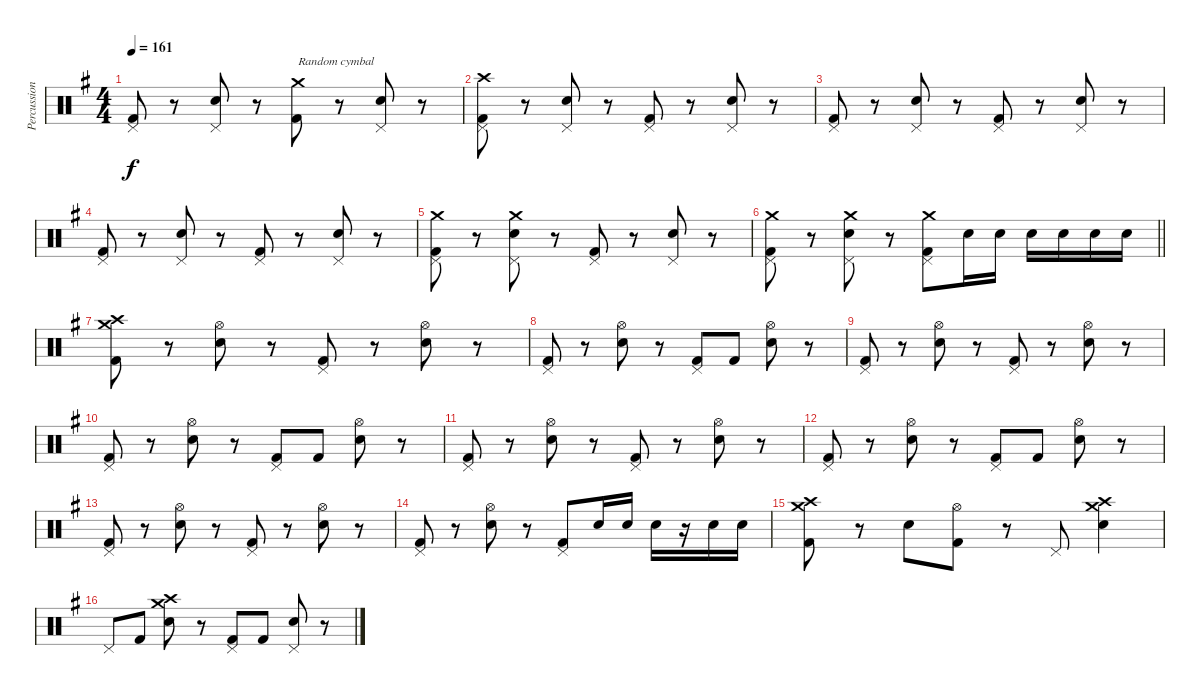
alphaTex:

\track ("Percussion" "Percussion") {instrument percussion}
\staff {score}
\articulation defaults
\ts (4 4)
\tempo 161
\clef neutral
\ks g
("Pedal Hi-Hat (hit)" "Kick (hit) 2").8{dy f} r.8 ("Pedal Hi-Hat (hit)" "Electric Snare (hit)").8 r.8 ("Crash medium (hit)" "Kick (hit) 2").8{txt "Random cymbal"} r.8 ("Pedal Hi-Hat (hit)" "Electric Snare (hit)").8 r.8 |
("Crash high (hit)" "Pedal Hi-Hat (hit)" "Kick (hit) 2").8 r.8 ("Pedal Hi-Hat (hit)" "Electric Snare (hit)").8 r.8 ("Pedal Hi-Hat (hit)" "Kick (hit) 2").8 r.8 ("Pedal Hi-Hat (hit)" "Electric Snare (hit)").8 r.8 |
("Pedal Hi-Hat (hit)" "Kick (hit) 2").8 r.8 ("Pedal Hi-Hat (hit)" "Electric Snare (hit)").8 r.8 ("Pedal Hi-Hat (hit)" "Kick (hit) 2").8 r.8 ("Pedal Hi-Hat (hit)" "Electric Snare (hit)").8 r.8 |
("Pedal Hi-Hat (hit)" "Kick (hit) 2").8 r.8 ("Pedal Hi-Hat (hit)" "Electric Snare (hit)").8 r.8 ("Pedal Hi-Hat (hit)" "Kick (hit) 2").8 r.8 ("Pedal Hi-Hat (hit)" "Electric Snare (hit)").8 r.8 |
("Crash medium (hit)" "Pedal Hi-Hat (hit)" "Kick (hit) 2").8 r.8 ("Crash medium (hit)" "Pedal Hi-Hat (hit)" "Electric Snare (hit)").8 r.8 ("Pedal Hi-Hat (hit)" "Kick (hit) 2").8 r.8 ("Pedal Hi-Hat (hit)" "Electric Snare (hit)").8 r.8 |
\barLineRight lightlight
("Crash medium (hit)" "Pedal Hi-Hat (hit)" "Kick (hit) 2").8 r.8 ("Crash medium (hit)" "Pedal Hi-Hat (hit)" "Electric Snare (hit)").8 r.8 ("Crash medium (hit)" "Pedal Hi-Hat (hit)" "Kick (hit) 2").8 "Electric Snare (hit)".16 "Electric Snare (hit)".16 "Electric Snare (hit)".16 "Electric Snare (hit)".16 "Electric Snare (hit)".16 "Electric Snare (hit)".16 |
("Crash high (hit)" "Crash medium (hit)" "Kick (hit) 2").8 r.8 ("Hi-Hat (open)" "Electric Snare (hit)").8 r.8 ("Pedal Hi-Hat (hit)" "Kick (hit) 2").8 r.8 ("Hi-Hat (open)" "Electric Snare (hit)").8 r.8 |
("Pedal Hi-Hat (hit)" "Kick (hit) 2").8 r.8 ("Hi-Hat (open)" "Electric Snare (hit)").8 r.8 ("Pedal Hi-Hat (hit)" "Kick (hit) 2").8 "Kick (hit) 2".8 ("Hi-Hat (open)" "Electric Snare (hit)").8 r.8 |
("Pedal Hi-Hat (hit)" "Kick (hit) 2").8 r.8 ("Hi-Hat (open)" "Electric Snare (hit)").8 r.8 ("Pedal Hi-Hat (hit)" "Kick (hit) 2").8 r.8 ("Hi-Hat (open)" "Electric Snare (hit)").8 r.8 |
("Pedal Hi-Hat (hit)" "Kick (hit) 2").8 r.8 ("Hi-Hat (open)" "Electric Snare (hit)").8 r.8 ("Pedal Hi-Hat (hit)" "Kick (hit) 2").8 "Kick (hit) 2".8 ("Hi-Hat (open)" "Electric Snare (hit)").8 r.8 |
("Pedal Hi-Hat (hit)" "Kick (hit) 2").8 r.8 ("Hi-Hat (open)" "Electric Snare (hit)").8 r.8 ("Pedal Hi-Hat (hit)" "Kick (hit) 2").8 r.8 ("Hi-Hat (open)" "Electric Snare (hit)").8 r.8 |
("Pedal Hi-Hat (hit)" "Kick (hit) 2").8 r.8 ("Hi-Hat (open)" "Electric Snare (hit)").8 r.8 ("Pedal Hi-Hat (hit)" "Kick (hit) 2").8 "Kick (hit) 2".8 ("Hi-Hat (open)" "Electric Snare (hit)").8 r.8 |
("Pedal Hi-Hat (hit)" "Kick (hit) 2").8 r.8 ("Hi-Hat (open)" "Electric Snare (hit)").8 r.8 ("Pedal Hi-Hat (hit)" "Kick (hit) 2").8 r.8 ("Hi-Hat (open)" "Electric Snare (hit)").8 r.8 |
("Pedal Hi-Hat (hit)" "Kick (hit) 2").8 r.8 ("Hi-Hat (open)" "Electric Snare (hit)").8 r.8 ("Pedal Hi-Hat (hit)" "Kick (hit) 2").8 "Electric Snare (hit)".16 "Electric Snare (hit)".16 "Electric Snare (hit)".16 r.16 "Electric Snare (hit)".16 "Electric Snare (hit)".16 |
("Crash high (hit)" "Crash medium (hit)" "Kick (hit) 2").8 r.8 "Electric Snare (hit)".8 ("Hi-Hat (open)" "Kick (hit) 2").8 r.8 "Pedal Hi-Hat (hit)".8 ("Crash high (hit)" "Crash medium (hit)" "Electric Snare (hit)").4 |
"Pedal Hi-Hat (hit)".8 "Kick (hit) 2".8 ("Crash medium (hit)" "Crash high (hit)" "Electric Snare (hit)").8 r.8 ("Pedal Hi-Hat (hit)" "Kick (hit) 2").8 "Kick (hit) 2".8 ("Pedal Hi-Hat (hit)" "Electric Snare (hit)").8 r.8
